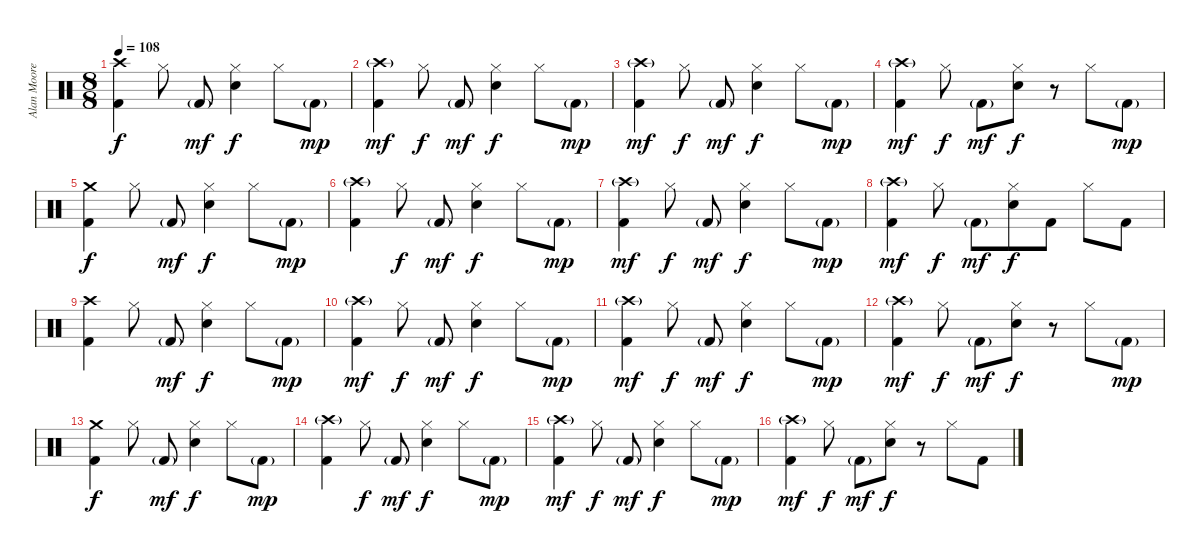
\track ("Alan Moore" "Alan Moore") {instrument percussion}
\staff {score}
\articulation defaults
\ts (8 8)
\tempo 108
\clef neutral
\ks c
("Crash high (hit)" "Kick (hit) 2").4{dy f} "Hi-Hat (closed)".8 "Kick (hit) 2"{g}.8{dy mf} ("Hi-Hat (closed)" "Snare (hit) 2").4{dy f} "Hi-Hat (closed)".8 "Kick (hit) 2"{g}.8{dy mp} |
("Crash high (hit)"{g} "Kick (hit) 2").4{dy mf} "Hi-Hat (closed)".8{dy f} "Kick (hit) 2"{g}.8{dy mf} ("Hi-Hat (closed)" "Snare (hit) 2").4{dy f} "Hi-Hat (closed)".8 "Kick (hit) 2"{g}.8{dy mp} |
("Crash high (hit)"{g} "Kick (hit) 2").4{dy mf} "Hi-Hat (closed)".8{dy f} "Kick (hit) 2"{g}.8{dy mf} ("Hi-Hat (closed)" "Snare (hit) 2").4{dy f} "Hi-Hat (closed)".8 "Kick (hit) 2"{g}.8{dy mp} |
("Crash high (hit)"{g} "Kick (hit) 2").4{dy mf} "Hi-Hat (closed)".8{dy f} "Kick (hit) 2"{g}.8{dy mf} ("Hi-Hat (closed)" "Snare (hit) 2").8{dy f} r.8 "Hi-Hat (closed)".8 "Kick (hit) 2"{g}.8{dy mp} |
("Crash medium (hit)" "Kick (hit) 2").4{dy f} "Hi-Hat (closed)".8 "Kick (hit) 2"{g}.8{dy mf} ("Hi-Hat (closed)" "Snare (hit) 2").4{dy f} "Hi-Hat (closed)".8 "Kick (hit) 2"{g}.8{dy mp} |
("Crash high (hit)"{g} "Kick (hit) 2").4 "Hi-Hat (closed)".8{dy f} "Kick (hit) 2"{g}.8{dy mf} ("Hi-Hat (closed)" "Snare (hit) 2").4{dy f} "Hi-Hat (closed)".8 "Kick (hit) 2"{g}.8{dy mp} |
("Crash high (hit)"{g} "Kick (hit) 2").4{dy mf} "Hi-Hat (closed)".8{dy f} "Kick (hit) 2"{g}.8{dy mf} ("Hi-Hat (closed)" "Snare (hit) 2").4{dy f} "Hi-Hat (closed)".8 "Kick (hit) 2"{g}.8{dy mp} |
("Crash high (hit)"{g} "Kick (hit) 2").4{dy mf} "Hi-Hat (closed)".8{dy f} "Kick (hit) 2"{g}.8{dy mf} ("Hi-Hat (closed)" "Snare (hit) 2").8{dy f} "Kick (hit) 2".8 "Hi-Hat (closed)".8 "Kick (hit) 2".8 |
("Crash high (hit)" "Kick (hit) 2").4 "Hi-Hat (closed)".8 "Kick (hit) 2"{g}.8{dy mf} ("Hi-Hat (closed)" "Snare (hit) 2").4{dy f} "Hi-Hat (closed)".8 "Kick (hit) 2"{g}.8{dy mp} |
("Crash high (hit)"{g} "Kick (hit) 2").4{dy mf} "Hi-Hat (closed)".8{dy f} "Kick (hit) 2"{g}.8{dy mf} ("Hi-Hat (closed)" "Snare (hit) 2").4{dy f} "Hi-Hat (closed)".8 "Kick (hit) 2"{g}.8{dy mp} |
("Crash high (hit)"{g} "Kick (hit) 2").4{dy mf} "Hi-Hat (closed)".8{dy f} "Kick (hit) 2"{g}.8{dy mf} ("Hi-Hat (closed)" "Snare (hit) 2").4{dy f} "Hi-Hat (closed)".8 "Kick (hit) 2"{g}.8{dy mp} |
("Crash high (hit)"{g} "Kick (hit) 2").4{dy mf} "Hi-Hat (closed)".8{dy f} "Kick (hit) 2"{g}.8{dy mf} ("Hi-Hat (closed)" "Snare (hit) 2").8{dy f} r.8 "Hi-Hat (closed)".8 "Kick (hit) 2"{g}.8{dy mp} |
("Crash medium (hit)" "Kick (hit) 2").4{dy f} "Hi-Hat (closed)".8 "Kick (hit) 2"{g}.8{dy mf} ("Hi-Hat (closed)" "Snare (hit) 2").4{dy f} "Hi-Hat (closed)".8 "Kick (hit) 2"{g}.8{dy mp} |
("Crash high (hit)"{g} "Kick (hit) 2").4 "Hi-Hat (closed)".8{dy f} "Kick (hit) 2"{g}.8{dy mf} ("Hi-Hat (closed)" "Snare (hit) 2").4{dy f} "Hi-Hat (closed)".8 "Kick (hit) 2"{g}.8{dy mp} |
("Crash high (hit)"{g} "Kick (hit) 2").4{dy mf} "Hi-Hat (closed)".8{dy f} "Kick (hit) 2"{g}.8{dy mf} ("Hi-Hat (closed)" "Snare (hit) 2").4{dy f} "Hi-Hat (closed)".8 "Kick (hit) 2"{g}.8{dy mp} |
("Crash high (hit)"{g} "Kick (hit) 2").4{dy mf} "Hi-Hat (closed)".8{dy f} "Kick (hit) 2"{g}.8{dy mf} ("Hi-Hat (closed)" "Snare (hit) 2").8{dy f} r.8 "Hi-Hat (closed)".8 "Kick (hit) 2".8
